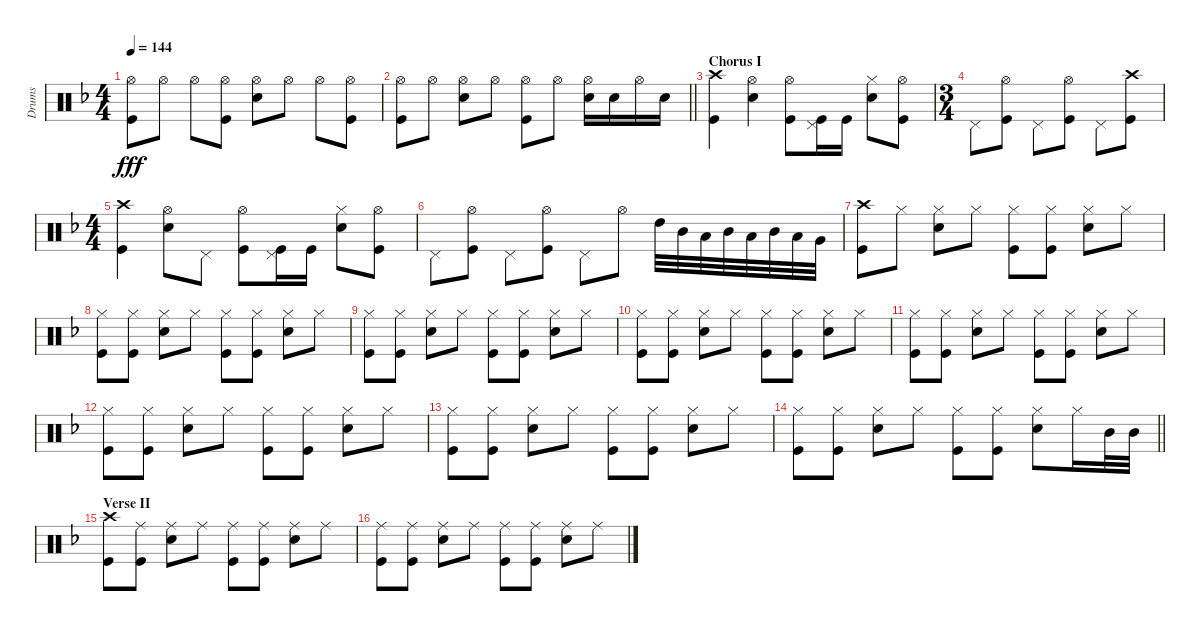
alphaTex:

\track ("Drums" "Drums") {instrument percussion}
\staff {score}
\articulation defaults
\ts (4 4)
\tempo 144
\clef neutral
\ks f
("Hi-Hat (open)" "Kick (hit)").8{dy fff} "Hi-Hat (open)".8 "Hi-Hat (open)".8 ("Hi-Hat (open)" "Kick (hit)").8 ("Hi-Hat (open)" "Snare (hit) 2").8 "Hi-Hat (open)".8 "Hi-Hat (open)".8 ("Hi-Hat (open)" "Kick (hit)").8 |
\barLineRight lightlight
("Hi-Hat (open)" "Kick (hit)").8 "Hi-Hat (open)".8 ("Hi-Hat (open)" "Snare (hit) 2").8 "Hi-Hat (open)".8 ("Hi-Hat (open)" "Kick (hit)").8 "Hi-Hat (open)".8 ("Hi-Hat (open)" "Snare (hit) 2").16 "Snare (hit) 2".16 "Hi-Hat (open)".16 "Snare (hit) 2".16 |
\section ("" "Chorus I")
("Crash high (hit)" "Kick (hit)").4 ("Hi-Hat (open)" "Snare (hit) 2").4 ("Hi-Hat (open)" "Kick (hit)").8 ("Pedal Hi-Hat (hit)" "Kick (hit)").16 "Kick (hit)".16 ("Hi-Hat (closed)" "Snare (hit) 2").8 ("Hi-Hat (open)" "Kick (hit)").8 |
\ts (3 4)
"Pedal Hi-Hat (hit)".8 ("Hi-Hat (open)" "Kick (hit)").8 "Pedal Hi-Hat (hit)".8 ("Hi-Hat (open)" "Kick (hit)").8 "Pedal Hi-Hat (hit)".8 ("Crash high (hit)" "Kick (hit)").8 |
\ts (4 4)
("Crash high (hit)" "Kick (hit)").4 ("Hi-Hat (open)" "Snare (hit) 2").8 "Pedal Hi-Hat (hit)".8 ("Hi-Hat (open)" "Kick (hit)").8 ("Pedal Hi-Hat (hit)" "Kick (hit)").16 "Kick (hit)".16 ("Hi-Hat (closed)" "Snare (hit) 2").8 ("Hi-Hat (open)" "Kick (hit)").8 |
"Pedal Hi-Hat (hit)".8 ("Hi-Hat (open)" "Kick (hit)").8 "Pedal Hi-Hat (hit)".8 ("Hi-Hat (open)" "Kick (hit)").8 "Pedal Hi-Hat (hit)".8 "Hi-Hat (open)".8 "High Tom (hit)".32 "Mid Tom (hit)".32 "Low Tom (hit)".32 "Mid Tom (hit)".32 "Low Tom (hit)".32 "Mid Tom (hit)".32 "Low Tom (hit)".32 "Very Low Tom (hit)".32 |
("Crash high (hit)" "Kick (hit)").8 "Hi-Hat (closed)".8 ("Hi-Hat (closed)" "Snare (hit) 2").8 "Hi-Hat (closed)".8 ("Hi-Hat (closed)" "Kick (hit)").8 ("Hi-Hat (closed)" "Kick (hit)").8 ("Hi-Hat (closed)" "Snare (hit) 2").8 "Hi-Hat (closed)".8 |
("Hi-Hat (closed)" "Kick (hit)").8 ("Hi-Hat (closed)" "Kick (hit)").8 ("Hi-Hat (closed)" "Snare (hit) 2").8 "Hi-Hat (closed)".8 ("Hi-Hat (closed)" "Kick (hit)").8 ("Hi-Hat (closed)" "Kick (hit)").8 ("Hi-Hat (closed)" "Snare (hit) 2").8 "Hi-Hat (closed)".8 |
("Hi-Hat (closed)" "Kick (hit)").8 ("Hi-Hat (closed)" "Kick (hit)").8 ("Hi-Hat (closed)" "Snare (hit) 2").8 "Hi-Hat (closed)".8 ("Hi-Hat (closed)" "Kick (hit)").8 ("Hi-Hat (closed)" "Kick (hit)").8 ("Hi-Hat (closed)" "Snare (hit) 2").8 "Hi-Hat (closed)".8 |
("Hi-Hat (closed)" "Kick (hit)").8 ("Hi-Hat (closed)" "Kick (hit)").8 ("Hi-Hat (closed)" "Snare (hit) 2").8 "Hi-Hat (closed)".8 ("Hi-Hat (closed)" "Kick (hit)").8 ("Hi-Hat (closed)" "Kick (hit)").8 ("Hi-Hat (closed)" "Snare (hit) 2").8 "Hi-Hat (closed)".8 |
("Hi-Hat (closed)" "Kick (hit)").8 ("Hi-Hat (closed)" "Kick (hit)").8 ("Hi-Hat (closed)" "Snare (hit) 2").8 "Hi-Hat (closed)".8 ("Hi-Hat (closed)" "Kick (hit)").8 ("Hi-Hat (closed)" "Kick (hit)").8 ("Hi-Hat (closed)" "Snare (hit) 2").8 "Hi-Hat (closed)".8 |
("Hi-Hat (closed)" "Kick (hit)").8 ("Hi-Hat (closed)" "Kick (hit)").8 ("Hi-Hat (closed)" "Snare (hit) 2").8 "Hi-Hat (closed)".8 ("Hi-Hat (closed)" "Kick (hit)").8 ("Hi-Hat (closed)" "Kick (hit)").8 ("Hi-Hat (closed)" "Snare (hit) 2").8 "Hi-Hat (closed)".8 |
("Hi-Hat (closed)" "Kick (hit)").8 ("Hi-Hat (closed)" "Kick (hit)").8 ("Hi-Hat (closed)" "Snare (hit) 2").8 "Hi-Hat (closed)".8 ("Hi-Hat (closed)" "Kick (hit)").8 ("Hi-Hat (closed)" "Kick (hit)").8 ("Hi-Hat (closed)" "Snare (hit) 2").8 "Hi-Hat (closed)".8 |
\barLineRight lightlight
("Hi-Hat (closed)" "Kick (hit)").8 ("Hi-Hat (closed)" "Kick (hit)").8 ("Hi-Hat (closed)" "Snare (hit) 2").8 "Hi-Hat (closed)".8 ("Hi-Hat (closed)" "Kick (hit)").8 ("Hi-Hat (closed)" "Kick (hit)").8 ("Hi-Hat (closed)" "Snare (hit) 2").8 "Hi-Hat (closed)".16 "Mid Tom (hit)".32 "Mid Tom (hit)".32 |
\section ("" "Verse II")
("Crash high (hit)" "Kick (hit)").8 ("Ride (middle)" "Kick (hit)").8 ("Ride (middle)" "Snare (hit) 2").8 "Ride (middle)".8 ("Ride (middle)" "Kick (hit)").8 ("Ride (middle)" "Kick (hit)").8 ("Ride (middle)" "Snare (hit) 2").8 "Ride (middle)".8 |
("Ride (middle)" "Kick (hit)").8 ("Ride (middle)" "Kick (hit)").8 ("Ride (middle)" "Snare (hit) 2").8 "Ride (middle)".8 ("Ride (middle)" "Kick (hit)").8 ("Ride (middle)" "Kick (hit)").8 ("Ride (middle)" "Snare (hit) 2").8 "Ride (middle)".8
